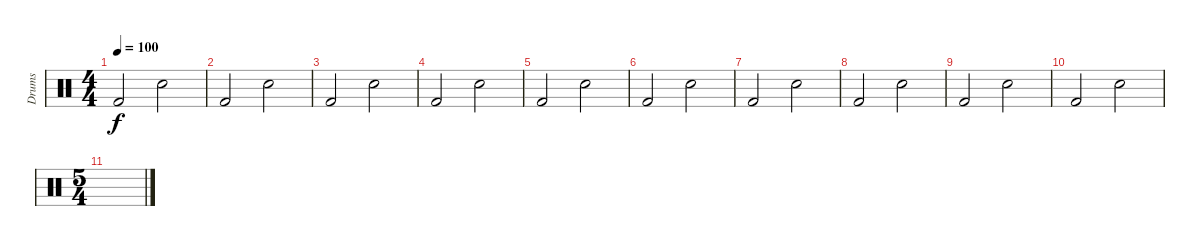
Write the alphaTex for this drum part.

\track ("Drums" "Drums") {instrument percussion}
\staff {score}
\articulation defaults
\ts (4 4)
\tempo 100
\clef neutral
\ks c "Kick (hit) 2".2{dy f} "Snare (hit) 2".2
|
"Kick (hit) 2".2 "Snare (hit) 2".2 |
"Kick (hit) 2".2 "Snare (hit) 2".2 |
"Kick (hit) 2".2 "Snare (hit) 2".2 |
"Kick (hit) 2".2 "Snare (hit) 2".2 |
"Kick (hit) 2".2 "Snare (hit) 2".2 |
"Kick (hit) 2".2 "Snare (hit) 2".2 |
"Kick (hit) 2".2 "Snare (hit) 2".2 |
"Kick (hit) 2".2 "Snare (hit) 2".2 |
"Kick (hit) 2".2 "Snare (hit) 2".2 |
\ts (5 4)
